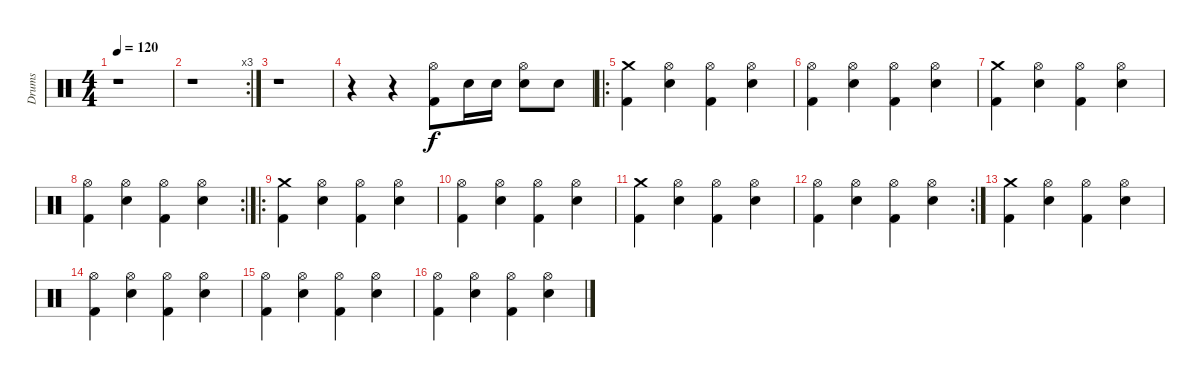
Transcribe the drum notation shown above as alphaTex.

\track ("Drums" "Drums") {instrument percussion}
\staff {score}
\articulation defaults
\ts (4 4)
\tempo 120
\clef neutral
\ks c
r.1{dy f} |
\rc 3
r.1 |
r.1 |
r.4 r.4 ("Hi-Hat (open)" "Kick (hit) 2").8 "Snare (hit) 2".16 "Snare (hit) 2".16 ("Hi-Hat (open)" "Snare (hit) 2").8 "Snare (hit) 2".8 |
\ro
("Crash medium (hit)" "Kick (hit) 2").4 ("Hi-Hat (open)" "Snare (hit) 2").4 ("Hi-Hat (open)" "Kick (hit) 2").4 ("Hi-Hat (open)" "Snare (hit) 2").4 |
("Hi-Hat (open)" "Kick (hit) 2").4 ("Hi-Hat (open)" "Snare (hit) 2").4 ("Hi-Hat (open)" "Kick (hit) 2").4 ("Hi-Hat (open)" "Snare (hit) 2").4 |
("Crash medium (hit)" "Kick (hit) 2").4 ("Hi-Hat (open)" "Snare (hit) 2").4 ("Hi-Hat (open)" "Kick (hit) 2").4 ("Hi-Hat (open)" "Snare (hit) 2").4 |
\rc 2
("Hi-Hat (open)" "Kick (hit) 2").4 ("Hi-Hat (open)" "Snare (hit) 2").4 ("Hi-Hat (open)" "Kick (hit) 2").4 ("Hi-Hat (open)" "Snare (hit) 2").4 |
\ro
("Crash medium (hit)" "Kick (hit) 2").4 ("Hi-Hat (open)" "Snare (hit) 2").4 ("Hi-Hat (open)" "Kick (hit) 2").4 ("Hi-Hat (open)" "Snare (hit) 2").4 |
("Hi-Hat (open)" "Kick (hit) 2").4 ("Hi-Hat (open)" "Snare (hit) 2").4 ("Hi-Hat (open)" "Kick (hit) 2").4 ("Hi-Hat (open)" "Snare (hit) 2").4 |
("Crash medium (hit)" "Kick (hit) 2").4 ("Hi-Hat (open)" "Snare (hit) 2").4 ("Hi-Hat (open)" "Kick (hit) 2").4 ("Hi-Hat (open)" "Snare (hit) 2").4 |
\rc 2
("Hi-Hat (open)" "Kick (hit) 2").4 ("Hi-Hat (open)" "Snare (hit) 2").4 ("Hi-Hat (open)" "Kick (hit) 2").4 ("Hi-Hat (open)" "Snare (hit) 2").4 |
("Crash medium (hit)" "Kick (hit) 2").4 ("Hi-Hat (open)" "Snare (hit) 2").4 ("Hi-Hat (open)" "Kick (hit) 2").4 ("Hi-Hat (open)" "Snare (hit) 2").4 |
("Hi-Hat (open)" "Kick (hit) 2").4 ("Hi-Hat (open)" "Snare (hit) 2").4 ("Hi-Hat (open)" "Kick (hit) 2").4 ("Hi-Hat (open)" "Snare (hit) 2").4 |
("Hi-Hat (open)" "Kick (hit) 2").4 ("Hi-Hat (open)" "Snare (hit) 2").4 ("Hi-Hat (open)" "Kick (hit) 2").4 ("Hi-Hat (open)" "Snare (hit) 2").4 |
("Hi-Hat (open)" "Kick (hit) 2").4 ("Hi-Hat (open)" "Snare (hit) 2").4 ("Hi-Hat (open)" "Kick (hit) 2").4 ("Hi-Hat (open)" "Snare (hit) 2").4
